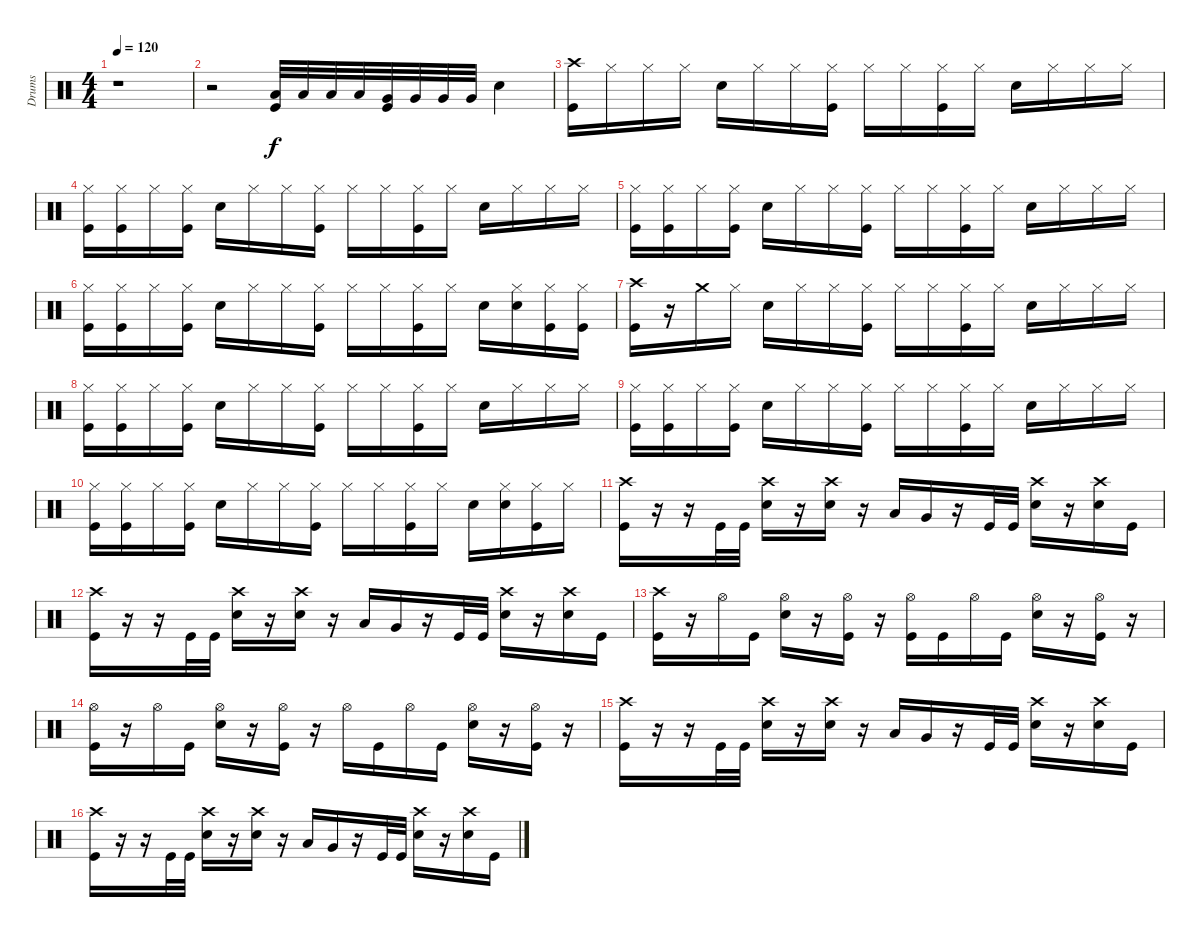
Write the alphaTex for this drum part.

\track ("Drums" "Drums") {instrument percussion}
\staff {score}
\articulation defaults
\ts (4 4)
\tempo 120
\clef neutral
\ks c
r.1{dy f} |
r.2 ("Low Tom (hit)" "Kick (hit)").32 "Low Tom (hit)".32 "Low Tom (hit)".32 "Low Tom (hit)".32 ("Very Low Tom (hit)" "Kick (hit)").32 "Very Low Tom (hit)".32 "Very Low Tom (hit)".32 "Very Low Tom (hit)".32 "Snare (hit) 2".4 |
("Crash high (hit)" "Kick (hit)").16 "Hi-Hat (closed)".16 "Hi-Hat (closed)".16 "Hi-Hat (closed)".16 "Snare (hit) 2".16 "Hi-Hat (closed)".16 "Hi-Hat (closed)".16 ("Hi-Hat (closed)" "Kick (hit)").16 "Hi-Hat (closed)".16 "Hi-Hat (closed)".16 ("Hi-Hat (closed)" "Kick (hit)").16 "Hi-Hat (closed)".16 "Snare (hit) 2".16 "Hi-Hat (closed)".16 "Hi-Hat (closed)".16 "Hi-Hat (closed)".16 |
("Hi-Hat (closed)" "Kick (hit)").16 ("Hi-Hat (closed)" "Kick (hit)").16 "Hi-Hat (closed)".16 ("Hi-Hat (closed)" "Kick (hit)").16 "Snare (hit) 2".16 "Hi-Hat (closed)".16 "Hi-Hat (closed)".16 ("Hi-Hat (closed)" "Kick (hit)").16 "Hi-Hat (closed)".16 "Hi-Hat (closed)".16 ("Hi-Hat (closed)" "Kick (hit)").16 "Hi-Hat (closed)".16 "Snare (hit) 2".16 "Hi-Hat (closed)".16 "Hi-Hat (closed)".16 "Hi-Hat (closed)".16 |
("Hi-Hat (closed)" "Kick (hit)").16 ("Hi-Hat (closed)" "Kick (hit)").16 "Hi-Hat (closed)".16 ("Hi-Hat (closed)" "Kick (hit)").16 "Snare (hit) 2".16 "Hi-Hat (closed)".16 "Hi-Hat (closed)".16 ("Hi-Hat (closed)" "Kick (hit)").16 "Hi-Hat (closed)".16 "Hi-Hat (closed)".16 ("Hi-Hat (closed)" "Kick (hit)").16 "Hi-Hat (closed)".16 "Snare (hit) 2".16 "Hi-Hat (closed)".16 "Hi-Hat (closed)".16 "Hi-Hat (closed)".16 |
("Hi-Hat (closed)" "Kick (hit)").16 ("Hi-Hat (closed)" "Kick (hit)").16 "Hi-Hat (closed)".16 ("Hi-Hat (closed)" "Kick (hit)").16 "Snare (hit) 2".16 "Hi-Hat (closed)".16 "Hi-Hat (closed)".16 ("Hi-Hat (closed)" "Kick (hit)").16 "Hi-Hat (closed)".16 "Hi-Hat (closed)".16 ("Hi-Hat (closed)" "Kick (hit)").16 "Hi-Hat (closed)".16 "Snare (hit) 2".16 ("Hi-Hat (closed)" "Snare (hit) 2").16 ("Hi-Hat (closed)" "Kick (hit)").16 ("Hi-Hat (closed)" "Kick (hit)").16 |
("Crash high (hit)" "Kick (hit)").16 r.16 "Crash medium (hit)".16 "Hi-Hat (closed)".16 "Snare (hit) 2".16 "Hi-Hat (closed)".16 "Hi-Hat (closed)".16 ("Hi-Hat (closed)" "Kick (hit)").16 "Hi-Hat (closed)".16 "Hi-Hat (closed)".16 ("Hi-Hat (closed)" "Kick (hit)").16 "Hi-Hat (closed)".16 "Snare (hit) 2".16 "Hi-Hat (closed)".16 "Hi-Hat (closed)".16 "Hi-Hat (closed)".16 |
("Hi-Hat (closed)" "Kick (hit)").16 ("Hi-Hat (closed)" "Kick (hit)").16 "Hi-Hat (closed)".16 ("Hi-Hat (closed)" "Kick (hit)").16 "Snare (hit) 2".16 "Hi-Hat (closed)".16 "Hi-Hat (closed)".16 ("Hi-Hat (closed)" "Kick (hit)").16 "Hi-Hat (closed)".16 "Hi-Hat (closed)".16 ("Hi-Hat (closed)" "Kick (hit)").16 "Hi-Hat (closed)".16 "Snare (hit) 2".16 "Hi-Hat (closed)".16 "Hi-Hat (closed)".16 "Hi-Hat (closed)".16 |
("Hi-Hat (closed)" "Kick (hit)").16 ("Hi-Hat (closed)" "Kick (hit)").16 "Hi-Hat (closed)".16 ("Hi-Hat (closed)" "Kick (hit)").16 "Snare (hit) 2".16 "Hi-Hat (closed)".16 "Hi-Hat (closed)".16 ("Hi-Hat (closed)" "Kick (hit)").16 "Hi-Hat (closed)".16 "Hi-Hat (closed)".16 ("Hi-Hat (closed)" "Kick (hit)").16 "Hi-Hat (closed)".16 "Snare (hit) 2".16 "Hi-Hat (closed)".16 "Hi-Hat (closed)".16 "Hi-Hat (closed)".16 |
("Hi-Hat (closed)" "Kick (hit)").16 ("Hi-Hat (closed)" "Kick (hit)").16 "Hi-Hat (closed)".16 ("Hi-Hat (closed)" "Kick (hit)").16 "Snare (hit) 2".16 "Hi-Hat (closed)".16 "Hi-Hat (closed)".16 ("Hi-Hat (closed)" "Kick (hit)").16 "Hi-Hat (closed)".16 "Hi-Hat (closed)".16 ("Hi-Hat (closed)" "Kick (hit)").16 "Hi-Hat (closed)".16 "Snare (hit) 2".16 ("Hi-Hat (closed)" "Snare (hit) 2").16 ("Hi-Hat (closed)" "Kick (hit)").16 "Hi-Hat (closed)".16 |
("Crash high (hit)" "Kick (hit)").16 r.16 r.16 "Kick (hit)".32 "Kick (hit)".32 ("Crash high (hit)" "Snare (hit) 2").16 r.16 ("Crash high (hit)" "Snare (hit) 2").16 r.16 "Low Tom (hit)".16 "Very Low Tom (hit)".16 r.16 "Kick (hit)".32 "Kick (hit)".32 ("Crash high (hit)" "Snare (hit) 2").16 r.16 ("Crash high (hit)" "Snare (hit) 2").16 "Kick (hit)".16 |
("Crash high (hit)" "Kick (hit)").16 r.16 r.16 "Kick (hit)".32 "Kick (hit)".32 ("Crash high (hit)" "Snare (hit) 2").16 r.16 ("Crash high (hit)" "Snare (hit) 2").16 r.16 "Low Tom (hit)".16 "Very Low Tom (hit)".16 r.16 "Kick (hit)".32 "Kick (hit)".32 ("Crash high (hit)" "Snare (hit) 2").16 r.16 ("Crash high (hit)" "Snare (hit) 2").16 "Kick (hit)".16 |
("Crash high (hit)" "Kick (hit)").16 r.16 "Hi-Hat (open)".16 "Kick (hit)".16 ("Hi-Hat (open)" "Snare (hit) 2").16 r.16 ("Hi-Hat (open)" "Kick (hit)").16 r.16 ("Hi-Hat (open)" "Kick (hit)").16 "Kick (hit)".16 "Hi-Hat (open)".16 "Kick (hit)".16 ("Hi-Hat (open)" "Snare (hit) 2").16 r.16 ("Hi-Hat (open)" "Kick (hit)").16 r.16 |
("Hi-Hat (open)" "Kick (hit)").16 r.16 "Hi-Hat (open)".16 "Kick (hit)".16 ("Hi-Hat (open)" "Snare (hit) 2").16 r.16 ("Hi-Hat (open)" "Kick (hit)").16 r.16 "Hi-Hat (open)".16 "Kick (hit)".16 "Hi-Hat (open)".16 "Kick (hit)".16 ("Hi-Hat (open)" "Snare (hit) 2").16 r.16 ("Hi-Hat (open)" "Kick (hit)").16 r.16 |
("Crash high (hit)" "Kick (hit)").16 r.16 r.16 "Kick (hit)".32 "Kick (hit)".32 ("Crash high (hit)" "Snare (hit) 2").16 r.16 ("Crash high (hit)" "Snare (hit) 2").16 r.16 "Low Tom (hit)".16 "Very Low Tom (hit)".16 r.16 "Kick (hit)".32 "Kick (hit)".32 ("Crash high (hit)" "Snare (hit) 2").16 r.16 ("Crash high (hit)" "Snare (hit) 2").16 "Kick (hit)".16 |
("Crash high (hit)" "Kick (hit)").16 r.16 r.16 "Kick (hit)".32 "Kick (hit)".32 ("Crash high (hit)" "Snare (hit) 2").16 r.16 ("Crash high (hit)" "Snare (hit) 2").16 r.16 "Low Tom (hit)".16 "Very Low Tom (hit)".16 r.16 "Kick (hit)".32 "Kick (hit)".32 ("Crash high (hit)" "Snare (hit) 2").16 r.16 ("Crash high (hit)" "Snare (hit) 2").16 "Kick (hit)".16
